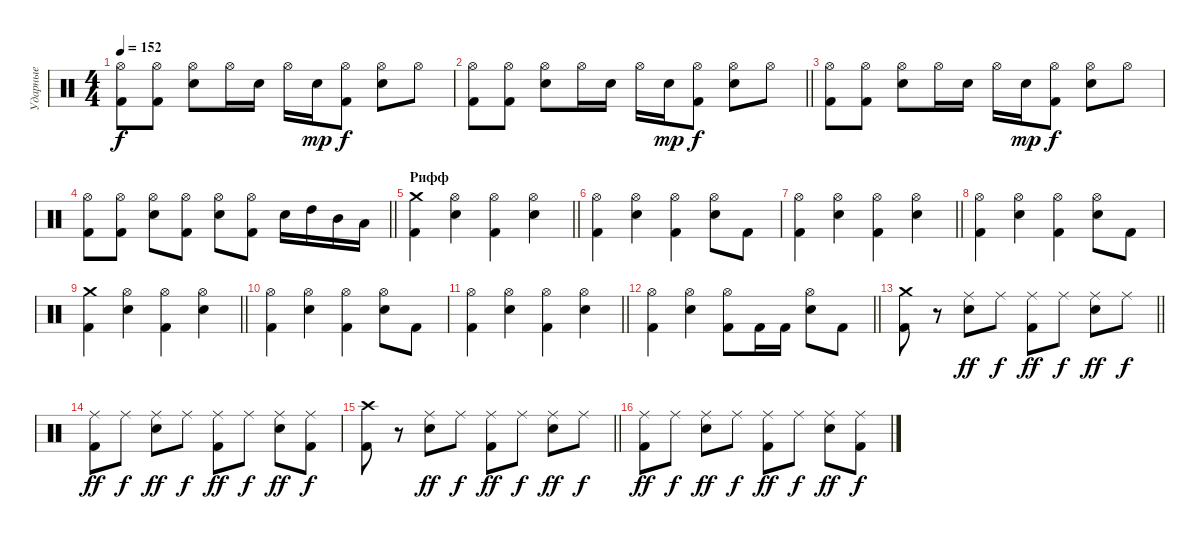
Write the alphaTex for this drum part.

\track ("Ударные" "Ударные") {instrument percussion}
\staff {score}
\articulation defaults
\ts (4 4)
\tempo 152
\clef neutral
\ks c
("Hi-Hat (open)" "Kick (hit) 2").8{dy f} ("Hi-Hat (open)" "Kick (hit) 2").8 ("Hi-Hat (open)" "Snare (hit) 2").8 "Hi-Hat (open)".16 "Snare (hit) 2".16 "Hi-Hat (open)".16 "Snare (hit) 2".16{dy mp} ("Hi-Hat (open)" "Kick (hit) 2").8{dy f} ("Hi-Hat (open)" "Snare (hit) 2").8 "Hi-Hat (open)".8 |
\barLineRight lightlight
("Hi-Hat (open)" "Kick (hit) 2").8 ("Hi-Hat (open)" "Kick (hit) 2").8 ("Hi-Hat (open)" "Snare (hit) 2").8 "Hi-Hat (open)".16 "Snare (hit) 2".16 "Hi-Hat (open)".16 "Snare (hit) 2".16{dy mp} ("Hi-Hat (open)" "Kick (hit) 2").8{dy f} ("Hi-Hat (open)" "Snare (hit) 2").8 "Hi-Hat (open)".8 |
("Hi-Hat (open)" "Kick (hit) 2").8 ("Hi-Hat (open)" "Kick (hit) 2").8 ("Hi-Hat (open)" "Snare (hit) 2").8 "Hi-Hat (open)".16 "Snare (hit) 2".16 "Hi-Hat (open)".16 "Snare (hit) 2".16{dy mp} ("Hi-Hat (open)" "Kick (hit) 2").8{dy f} ("Hi-Hat (open)" "Snare (hit) 2").8 "Hi-Hat (open)".8 |
\barLineRight lightlight
("Hi-Hat (open)" "Kick (hit) 2").8 ("Hi-Hat (open)" "Kick (hit) 2").8 ("Hi-Hat (open)" "Snare (hit) 2").8 ("Hi-Hat (open)" "Kick (hit) 2").8 ("Hi-Hat (open)" "Snare (hit) 2").8 ("Hi-Hat (open)" "Kick (hit) 2").8 "Snare (hit) 2".16 "High Tom (hit)".16 "Mid Tom (hit)".16 "Low Tom (hit)".16 |
\section ("" "Рифф")
\barLineRight lightlight
("Crash medium (hit)" "Kick (hit) 2").4 ("Hi-Hat (open)" "Snare (hit) 2").4 ("Hi-Hat (open)" "Kick (hit) 2").4 ("Hi-Hat (open)" "Snare (hit) 2").4 |
("Hi-Hat (open)" "Kick (hit) 2").4 ("Hi-Hat (open)" "Snare (hit) 2").4 ("Hi-Hat (open)" "Kick (hit) 2").4 ("Hi-Hat (open)" "Snare (hit) 2").8 "Kick (hit) 2".8 |
\barLineRight lightlight
("Hi-Hat (open)" "Kick (hit) 2").4 ("Hi-Hat (open)" "Snare (hit) 2").4 ("Hi-Hat (open)" "Kick (hit) 2").4 ("Hi-Hat (open)" "Snare (hit) 2").4 |
("Hi-Hat (open)" "Kick (hit) 2").4 ("Hi-Hat (open)" "Snare (hit) 2").4 ("Hi-Hat (open)" "Kick (hit) 2").4 ("Hi-Hat (open)" "Snare (hit) 2").8 "Kick (hit) 2".8 |
\barLineRight lightlight
("Crash medium (hit)" "Kick (hit) 2").4 ("Hi-Hat (open)" "Snare (hit) 2").4 ("Hi-Hat (open)" "Kick (hit) 2").4 ("Hi-Hat (open)" "Snare (hit) 2").4 |
("Hi-Hat (open)" "Kick (hit) 2").4 ("Hi-Hat (open)" "Snare (hit) 2").4 ("Hi-Hat (open)" "Kick (hit) 2").4 ("Hi-Hat (open)" "Snare (hit) 2").8 "Kick (hit) 2".8 |
\barLineRight lightlight
("Hi-Hat (open)" "Kick (hit) 2").4 ("Hi-Hat (open)" "Snare (hit) 2").4 ("Hi-Hat (open)" "Kick (hit) 2").4 ("Hi-Hat (open)" "Snare (hit) 2").4 |
\barLineRight lightlight
("Hi-Hat (open)" "Kick (hit) 2").4 ("Hi-Hat (open)" "Snare (hit) 2").4 ("Hi-Hat (open)" "Kick (hit) 2").8 "Kick (hit) 2".16 "Kick (hit) 2".16 ("Hi-Hat (open)" "Snare (hit) 2").8 "Kick (hit) 2".8 |
\section ("" "")
\barLineRight lightlight
("Crash medium (hit)" "Kick (hit) 2").8 r.8 ("Ride (middle)" "Snare (hit) 2").8{dy ff} "Ride (middle)".8{dy f} ("Ride (middle)" "Kick (hit) 2").8{dy ff} "Ride (middle)".8{dy f} ("Ride (middle)" "Snare (hit) 2").8{dy ff} "Ride (middle)".8{dy f} |
("Ride (middle)" "Kick (hit) 2").8{dy ff} "Ride (middle)".8{dy f} ("Ride (middle)" "Snare (hit) 2").8{dy ff} "Ride (middle)".8{dy f} ("Ride (middle)" "Kick (hit) 2").8{dy ff} "Ride (middle)".8{dy f} ("Ride (middle)" "Snare (hit) 2").8{dy ff} ("Ride (middle)" "Kick (hit) 2").8{dy f} |
\barLineRight lightlight
("Crash high (hit)" "Kick (hit) 2").8 r.8 ("Ride (middle)" "Snare (hit) 2").8{dy ff} "Ride (middle)".8{dy f} ("Ride (middle)" "Kick (hit) 2").8{dy ff} "Ride (middle)".8{dy f} ("Ride (middle)" "Snare (hit) 2").8{dy ff} "Ride (middle)".8{dy f} |
("Ride (middle)" "Kick (hit) 2").8{dy ff} "Ride (middle)".8{dy f} ("Ride (middle)" "Snare (hit) 2").8{dy ff} "Ride (middle)".8{dy f} ("Ride (middle)" "Kick (hit) 2").8{dy ff} "Ride (middle)".8{dy f} ("Ride (middle)" "Snare (hit) 2").8{dy ff} ("Ride (middle)" "Kick (hit) 2").8{dy f}
